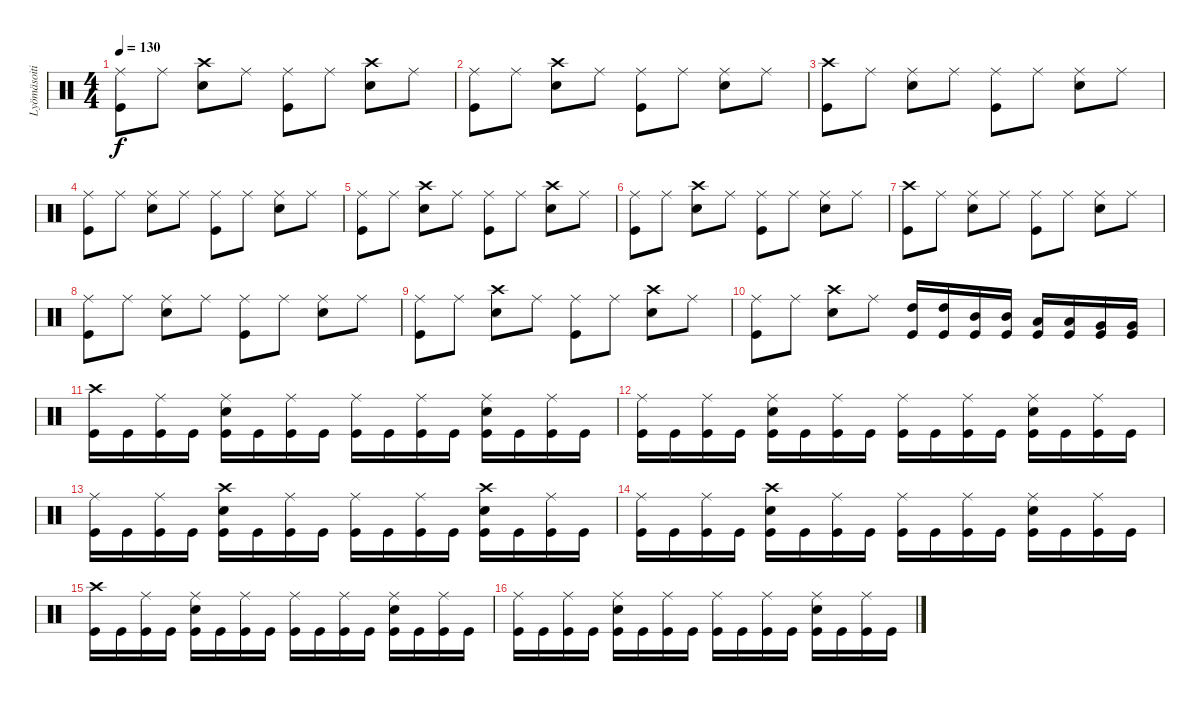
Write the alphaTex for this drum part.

\track ("Lyömäsoitin" "Lyömäsoiti") {instrument percussion}
\staff {score}
\articulation defaults
\ts (4 4)
\tempo 130
\clef neutral
\ks c
("Ride (middle)" "Kick (hit)").8{dy f} "Ride (middle)".8 ("Crash high (hit)" "Snare (hit) 2").8 "Ride (middle)".8 ("Ride (middle)" "Kick (hit)").8 "Ride (middle)".8 ("Crash high (hit)" "Snare (hit) 2").8 "Ride (middle)".8 |
("Ride (middle)" "Kick (hit)").8 "Ride (middle)".8 ("Crash high (hit)" "Snare (hit) 2").8 "Ride (middle)".8 ("Ride (middle)" "Kick (hit)").8 "Ride (middle)".8 ("Ride (middle)" "Snare (hit) 2").8 "Ride (middle)".8 |
("Crash high (hit)" "Kick (hit)").8 "Ride (middle)".8 ("Ride (middle)" "Snare (hit) 2").8 "Ride (middle)".8 ("Ride (middle)" "Kick (hit)").8 "Ride (middle)".8 ("Ride (middle)" "Snare (hit) 2").8 "Ride (middle)".8 |
("Ride (middle)" "Kick (hit)").8 "Ride (middle)".8 ("Ride (middle)" "Snare (hit) 2").8 "Ride (middle)".8 ("Ride (middle)" "Kick (hit)").8 "Ride (middle)".8 ("Ride (middle)" "Snare (hit) 2").8 "Ride (middle)".8 |
("Ride (middle)" "Kick (hit)").8 "Ride (middle)".8 ("Crash high (hit)" "Snare (hit) 2").8 "Ride (middle)".8 ("Ride (middle)" "Kick (hit)").8 "Ride (middle)".8 ("Crash high (hit)" "Snare (hit) 2").8 "Ride (middle)".8 |
("Ride (middle)" "Kick (hit)").8 "Ride (middle)".8 ("Crash high (hit)" "Snare (hit) 2").8 "Ride (middle)".8 ("Ride (middle)" "Kick (hit)").8 "Ride (middle)".8 ("Ride (middle)" "Snare (hit) 2").8 "Ride (middle)".8 |
("Crash high (hit)" "Kick (hit)").8 "Ride (middle)".8 ("Ride (middle)" "Snare (hit) 2").8 "Ride (middle)".8 ("Ride (middle)" "Kick (hit)").8 "Ride (middle)".8 ("Ride (middle)" "Snare (hit) 2").8 "Ride (middle)".8 |
("Ride (middle)" "Kick (hit)").8 "Ride (middle)".8 ("Ride (middle)" "Snare (hit) 2").8 "Ride (middle)".8 ("Ride (middle)" "Kick (hit)").8 "Ride (middle)".8 ("Ride (middle)" "Snare (hit) 2").8 "Ride (middle)".8 |
("Ride (middle)" "Kick (hit)").8 "Ride (middle)".8 ("Crash high (hit)" "Snare (hit) 2").8 "Ride (middle)".8 ("Ride (middle)" "Kick (hit)").8 "Ride (middle)".8 ("Crash high (hit)" "Snare (hit) 2").8 "Ride (middle)".8 |
("Ride (middle)" "Kick (hit)").8 "Ride (middle)".8 ("Crash high (hit)" "Snare (hit) 2").8 "Ride (middle)".8 ("High Tom (hit)" "Kick (hit)").16 ("High Tom (hit)" "Kick (hit)").16 ("Mid Tom (hit)" "Kick (hit)").16 ("Mid Tom (hit)" "Kick (hit)").16 ("Low Tom (hit)" "Kick (hit)").16 ("Low Tom (hit)" "Kick (hit)").16 ("Very Low Tom (hit)" "Kick (hit)").16 ("Very Low Tom (hit)" "Kick (hit)").16 |
("Crash high (hit)" "Kick (hit)").16 "Kick (hit)".16 ("Ride (middle)" "Kick (hit)").16 "Kick (hit)".16 ("Ride (middle)" "Snare (hit) 2" "Kick (hit)").16 "Kick (hit)".16 ("Ride (middle)" "Kick (hit)").16 "Kick (hit)".16 ("Ride (middle)" "Kick (hit)").16 "Kick (hit)".16 ("Ride (middle)" "Kick (hit)").16 "Kick (hit)".16 ("Ride (middle)" "Snare (hit) 2" "Kick (hit)").16 "Kick (hit)".16 ("Ride (middle)" "Kick (hit)").16 "Kick (hit)".16 |
("Ride (middle)" "Kick (hit)").16 "Kick (hit)".16 ("Ride (middle)" "Kick (hit)").16 "Kick (hit)".16 ("Ride (middle)" "Snare (hit) 2" "Kick (hit)").16 "Kick (hit)".16 ("Ride (middle)" "Kick (hit)").16 "Kick (hit)".16 ("Ride (middle)" "Kick (hit)").16 "Kick (hit)".16 ("Ride (middle)" "Kick (hit)").16 "Kick (hit)".16 ("Ride (middle)" "Snare (hit) 2" "Kick (hit)").16 "Kick (hit)".16 ("Ride (middle)" "Kick (hit)").16 "Kick (hit)".16 |
("Ride (middle)" "Kick (hit)").16 "Kick (hit)".16 ("Ride (middle)" "Kick (hit)").16 "Kick (hit)".16 ("Crash high (hit)" "Snare (hit) 2" "Kick (hit)").16 "Kick (hit)".16 ("Ride (middle)" "Kick (hit)").16 "Kick (hit)".16 ("Ride (middle)" "Kick (hit)").16 "Kick (hit)".16 ("Ride (middle)" "Kick (hit)").16 "Kick (hit)".16 ("Crash high (hit)" "Snare (hit) 2" "Kick (hit)").16 "Kick (hit)".16 ("Ride (middle)" "Kick (hit)").16 "Kick (hit)".16 |
("Ride (middle)" "Kick (hit)").16 "Kick (hit)".16 ("Ride (middle)" "Kick (hit)").16 "Kick (hit)".16 ("Crash high (hit)" "Snare (hit) 2" "Kick (hit)").16 "Kick (hit)".16 ("Ride (middle)" "Kick (hit)").16 "Kick (hit)".16 ("Ride (middle)" "Kick (hit)").16 "Kick (hit)".16 ("Ride (middle)" "Kick (hit)").16 "Kick (hit)".16 ("Ride (middle)" "Snare (hit) 2" "Kick (hit)").16 "Kick (hit)".16 ("Ride (middle)" "Kick (hit)").16 "Kick (hit)".16 |
("Crash high (hit)" "Kick (hit)").16 "Kick (hit)".16 ("Ride (middle)" "Kick (hit)").16 "Kick (hit)".16 ("Ride (middle)" "Snare (hit) 2" "Kick (hit)").16 "Kick (hit)".16 ("Ride (middle)" "Kick (hit)").16 "Kick (hit)".16 ("Ride (middle)" "Kick (hit)").16 "Kick (hit)".16 ("Ride (middle)" "Kick (hit)").16 "Kick (hit)".16 ("Ride (middle)" "Snare (hit) 2" "Kick (hit)").16 "Kick (hit)".16 ("Ride (middle)" "Kick (hit)").16 "Kick (hit)".16 |
("Ride (middle)" "Kick (hit)").16 "Kick (hit)".16 ("Ride (middle)" "Kick (hit)").16 "Kick (hit)".16 ("Ride (middle)" "Snare (hit) 2" "Kick (hit)").16 "Kick (hit)".16 ("Ride (middle)" "Kick (hit)").16 "Kick (hit)".16 ("Ride (middle)" "Kick (hit)").16 "Kick (hit)".16 ("Ride (middle)" "Kick (hit)").16 "Kick (hit)".16 ("Ride (middle)" "Snare (hit) 2" "Kick (hit)").16 "Kick (hit)".16 ("Ride (middle)" "Kick (hit)").16 "Kick (hit)".16
